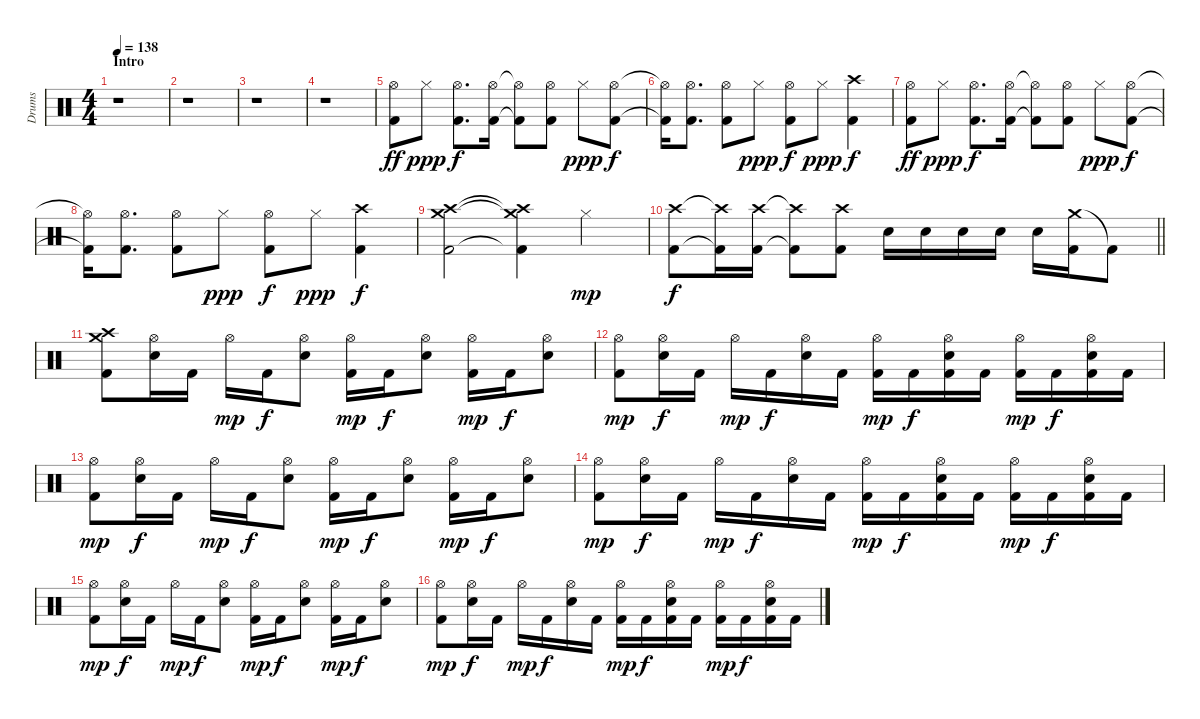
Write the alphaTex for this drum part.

\track ("Drums" "Drums") {instrument percussion}
\staff {score}
\articulation defaults
\ts (4 4)
\section ("" "Intro")
\tempo 138
\clef neutral
\ks c
r.1{dy ff} |
r.1 |
r.1 |
r.1 |
("Hi-Hat (open)" "Kick (hit) 2").8 "Hi-Hat (closed)".8{dy ppp} ("Hi-Hat (open)" "Kick (hit) 2").8{d dy f} ("Hi-Hat (open)" "Kick (hit) 2").16 ("Hi-Hat (open)"{t} "Kick (hit) 2"{t}).8 ("Hi-Hat (open)" "Kick (hit) 2").8 "Hi-Hat (closed)".8{dy ppp} ("Hi-Hat (open)" "Kick (hit) 2").8{dy f} |
("Hi-Hat (open)"{t} "Kick (hit) 2"{t}).16 ("Hi-Hat (open)" "Kick (hit) 2").8{d} ("Hi-Hat (open)" "Kick (hit) 2").8 "Hi-Hat (closed)".8{dy ppp} ("Hi-Hat (open)" "Kick (hit) 2").8{dy f} "Hi-Hat (closed)".8{dy ppp} ("Crash high (hit)" "Kick (hit) 2").4{dy f} |
("Hi-Hat (open)" "Kick (hit) 2").8{dy ff} "Hi-Hat (closed)".8{dy ppp} ("Hi-Hat (open)" "Kick (hit) 2").8{d dy f} ("Hi-Hat (open)" "Kick (hit) 2").16 ("Hi-Hat (open)"{t} "Kick (hit) 2"{t}).8 ("Hi-Hat (open)" "Kick (hit) 2").8 "Hi-Hat (closed)".8{dy ppp} ("Hi-Hat (open)" "Kick (hit) 2").8{dy f} |
("Hi-Hat (open)"{t} "Kick (hit) 2"{t}).16 ("Hi-Hat (open)" "Kick (hit) 2").8{d} ("Hi-Hat (open)" "Kick (hit) 2").8 "Hi-Hat (closed)".8{dy ppp} ("Hi-Hat (open)" "Kick (hit) 2").8{dy f} "Hi-Hat (closed)".8{dy ppp} ("Crash high (hit)" "Kick (hit) 2").4{dy f} |
("Crash high (hit)" "Crash medium (hit)" "Kick (hit) 2").2 ("Crash high (hit)"{t} "Crash medium (hit)"{t} "Kick (hit) 2"{t}).4 "Hi-Hat (closed)".4{dy mp} |
\barLineRight lightlight
("Crash high (hit)" "Kick (hit) 2").8{dy f} ("Crash high (hit)"{t} "Kick (hit) 2"{t}).16 ("Crash high (hit)" "Kick (hit) 2").16 ("Crash high (hit)"{t} "Kick (hit) 2"{t}).8 ("Crash high (hit)" "Kick (hit) 2").8 "Electric Snare (hit)".16 "Electric Snare (hit)".16 "Electric Snare (hit)".16 "Electric Snare (hit)".16 "Electric Snare (hit)".16 ("Crash medium (hit)" "Kick (hit) 2").16 "Kick (hit) 2"{t}.8 |
("Crash high (hit)" "Crash medium (hit)" "Kick (hit) 2").8 ("Hi-Hat (open)" "Electric Snare (hit)").16 "Kick (hit) 2".16 "Hi-Hat (open)".16{dy mp} "Kick (hit) 2".16{dy f} ("Hi-Hat (open)" "Electric Snare (hit)").8 ("Hi-Hat (open)" "Kick (hit) 2").16{dy mp} "Kick (hit) 2".16{dy f} ("Hi-Hat (open)" "Electric Snare (hit)").8 ("Hi-Hat (open)" "Kick (hit) 2").16{dy mp} "Kick (hit) 2".16{dy f} ("Hi-Hat (open)" "Electric Snare (hit)").8 |
("Hi-Hat (open)" "Kick (hit) 2").8{dy mp} ("Hi-Hat (open)" "Electric Snare (hit)").16{dy f} "Kick (hit) 2".16 "Hi-Hat (open)".16{dy mp} "Kick (hit) 2".16{dy f} ("Hi-Hat (open)" "Electric Snare (hit)").16 "Kick (hit) 2".16 ("Hi-Hat (open)" "Kick (hit) 2").16{dy mp} "Kick (hit) 2".16{dy f} ("Hi-Hat (open)" "Electric Snare (hit)" "Kick (hit) 2").16 "Kick (hit) 2".16 ("Hi-Hat (open)" "Kick (hit) 2").16{dy mp} "Kick (hit) 2".16{dy f} ("Hi-Hat (open)" "Electric Snare (hit)" "Kick (hit) 2").16 "Kick (hit) 2".16 |
("Hi-Hat (open)" "Kick (hit) 2").8{dy mp} ("Hi-Hat (open)" "Electric Snare (hit)").16{dy f} "Kick (hit) 2".16 "Hi-Hat (open)".16{dy mp} "Kick (hit) 2".16{dy f} ("Hi-Hat (open)" "Electric Snare (hit)").8 ("Hi-Hat (open)" "Kick (hit) 2").16{dy mp} "Kick (hit) 2".16{dy f} ("Hi-Hat (open)" "Electric Snare (hit)").8 ("Hi-Hat (open)" "Kick (hit) 2").16{dy mp} "Kick (hit) 2".16{dy f} ("Hi-Hat (open)" "Electric Snare (hit)").8 |
("Hi-Hat (open)" "Kick (hit) 2").8{dy mp} ("Hi-Hat (open)" "Electric Snare (hit)").16{dy f} "Kick (hit) 2".16 "Hi-Hat (open)".16{dy mp} "Kick (hit) 2".16{dy f} ("Hi-Hat (open)" "Electric Snare (hit)").16 "Kick (hit) 2".16 ("Hi-Hat (open)" "Kick (hit) 2").16{dy mp} "Kick (hit) 2".16{dy f} ("Hi-Hat (open)" "Electric Snare (hit)" "Kick (hit) 2").16 "Kick (hit) 2".16 ("Hi-Hat (open)" "Kick (hit) 2").16{dy mp} "Kick (hit) 2".16{dy f} ("Hi-Hat (open)" "Electric Snare (hit)" "Kick (hit) 2").16 "Kick (hit) 2".16 |
("Hi-Hat (open)" "Kick (hit) 2").8{dy mp} ("Hi-Hat (open)" "Electric Snare (hit)").16{dy f} "Kick (hit) 2".16 "Hi-Hat (open)".16{dy mp} "Kick (hit) 2".16{dy f} ("Hi-Hat (open)" "Electric Snare (hit)").8 ("Hi-Hat (open)" "Kick (hit) 2").16{dy mp} "Kick (hit) 2".16{dy f} ("Hi-Hat (open)" "Electric Snare (hit)").8 ("Hi-Hat (open)" "Kick (hit) 2").16{dy mp} "Kick (hit) 2".16{dy f} ("Hi-Hat (open)" "Electric Snare (hit)").8 |
("Hi-Hat (open)" "Kick (hit) 2").8{dy mp} ("Hi-Hat (open)" "Electric Snare (hit)").16{dy f} "Kick (hit) 2".16 "Hi-Hat (open)".16{dy mp} "Kick (hit) 2".16{dy f} ("Hi-Hat (open)" "Electric Snare (hit)").16 "Kick (hit) 2".16 ("Hi-Hat (open)" "Kick (hit) 2").16{dy mp} "Kick (hit) 2".16{dy f} ("Hi-Hat (open)" "Electric Snare (hit)" "Kick (hit) 2").16 "Kick (hit) 2".16 ("Hi-Hat (open)" "Kick (hit) 2").16{dy mp} "Kick (hit) 2".16{dy f} ("Hi-Hat (open)" "Electric Snare (hit)" "Kick (hit) 2").16 "Kick (hit) 2".16
